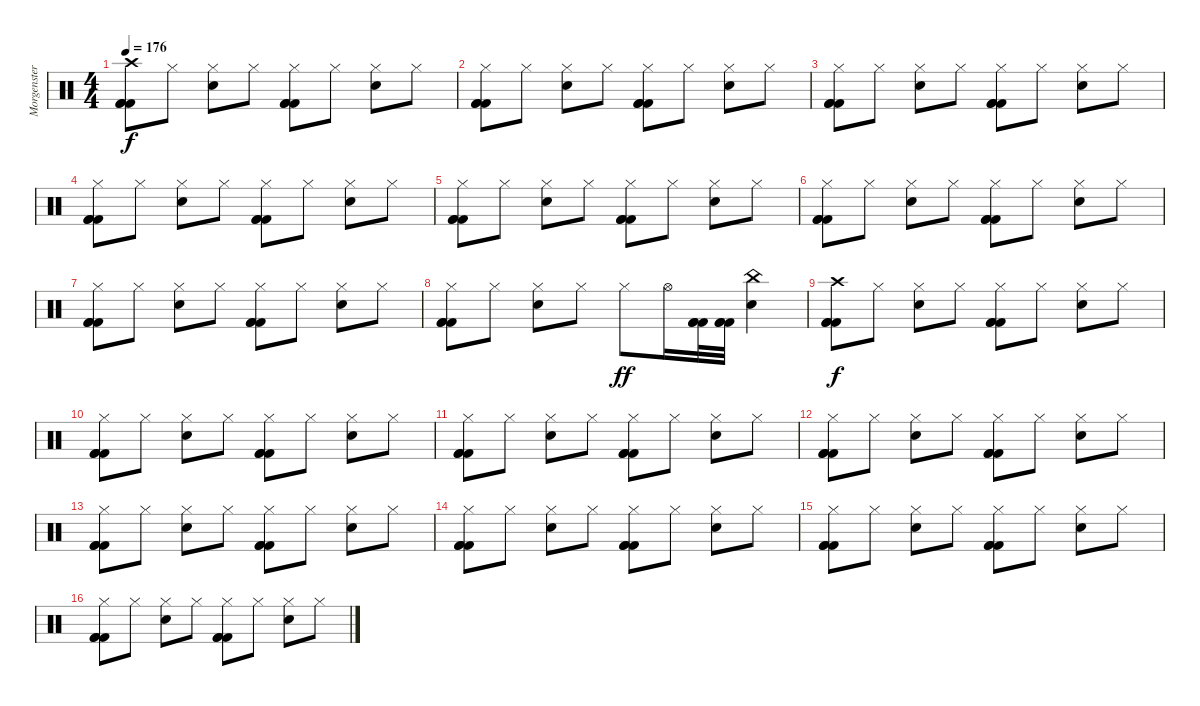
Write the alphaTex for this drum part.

\track ("Morgenstern (Schlagzeug)" "Morgenster") {instrument percussion}
\staff {score}
\articulation defaults
\ts (4 4)
\tempo 176
\clef neutral
\ks c
("Crash high (hit)" "Kick (hit) 2" "Kick (hit) 2" "Kick (hit) 2").8{dy f} "Hi-Hat (closed)".8 ("Hi-Hat (closed)" "Snare (hit) 2").8 "Hi-Hat (closed)".8 ("Hi-Hat (closed)" "Kick (hit) 2" "Kick (hit) 2" "Kick (hit) 2").8 "Hi-Hat (closed)".8 ("Hi-Hat (closed)" "Snare (hit) 2").8 "Hi-Hat (closed)".8 |
("Hi-Hat (closed)" "Kick (hit) 2" "Kick (hit) 2" "Kick (hit) 2").8 "Hi-Hat (closed)".8 ("Hi-Hat (closed)" "Snare (hit) 2").8 "Hi-Hat (closed)".8 ("Hi-Hat (closed)" "Kick (hit) 2" "Kick (hit) 2" "Kick (hit) 2").8 "Hi-Hat (closed)".8 ("Hi-Hat (closed)" "Snare (hit) 2").8 "Hi-Hat (closed)".8 |
("Hi-Hat (closed)" "Kick (hit) 2" "Kick (hit) 2" "Kick (hit) 2").8 "Hi-Hat (closed)".8 ("Hi-Hat (closed)" "Snare (hit) 2").8 "Hi-Hat (closed)".8 ("Hi-Hat (closed)" "Kick (hit) 2" "Kick (hit) 2" "Kick (hit) 2").8 "Hi-Hat (closed)".8 ("Hi-Hat (closed)" "Snare (hit) 2").8 "Hi-Hat (closed)".8 |
("Hi-Hat (closed)" "Kick (hit) 2" "Kick (hit) 2" "Kick (hit) 2").8 "Hi-Hat (closed)".8 ("Hi-Hat (closed)" "Snare (hit) 2").8 "Hi-Hat (closed)".8 ("Hi-Hat (closed)" "Kick (hit) 2" "Kick (hit) 2" "Kick (hit) 2").8 "Hi-Hat (closed)".8 ("Hi-Hat (closed)" "Snare (hit) 2").8 "Hi-Hat (closed)".8 |
("Hi-Hat (closed)" "Kick (hit) 2" "Kick (hit) 2" "Kick (hit) 2").8 "Hi-Hat (closed)".8 ("Hi-Hat (closed)" "Snare (hit) 2").8 "Hi-Hat (closed)".8 ("Hi-Hat (closed)" "Kick (hit) 2" "Kick (hit) 2" "Kick (hit) 2").8 "Hi-Hat (closed)".8 ("Hi-Hat (closed)" "Snare (hit) 2").8 "Hi-Hat (closed)".8 |
("Hi-Hat (closed)" "Kick (hit) 2" "Kick (hit) 2" "Kick (hit) 2").8 "Hi-Hat (closed)".8 ("Hi-Hat (closed)" "Snare (hit) 2").8 "Hi-Hat (closed)".8 ("Hi-Hat (closed)" "Kick (hit) 2" "Kick (hit) 2" "Kick (hit) 2").8 "Hi-Hat (closed)".8 ("Hi-Hat (closed)" "Snare (hit) 2").8 "Hi-Hat (closed)".8 |
("Hi-Hat (closed)" "Kick (hit) 2" "Kick (hit) 2" "Kick (hit) 2").8 "Hi-Hat (closed)".8 ("Hi-Hat (closed)" "Snare (hit) 2").8 "Hi-Hat (closed)".8 ("Hi-Hat (closed)" "Kick (hit) 2" "Kick (hit) 2" "Kick (hit) 2").8 "Hi-Hat (closed)".8 ("Hi-Hat (closed)" "Snare (hit) 2").8 "Hi-Hat (closed)".8 |
("Hi-Hat (closed)" "Kick (hit) 2" "Kick (hit) 2" "Kick (hit) 2").8 "Hi-Hat (closed)".8 ("Hi-Hat (closed)" "Snare (hit) 2").8 "Hi-Hat (closed)".8 "Hi-Hat (closed)".8{dy ff} "Hi-Hat (open)".16 ("Kick (hit) 2" "Kick (hit) 2" "Kick (hit) 2").32 ("Kick (hit) 2" "Kick (hit) 2" "Kick (hit) 2").32 ("China (hit)" "Snare (hit) 2").4 |
("Crash high (hit)" "Kick (hit) 2" "Kick (hit) 2" "Kick (hit) 2").8{dy f} "Hi-Hat (closed)".8 ("Hi-Hat (closed)" "Snare (hit) 2").8 "Hi-Hat (closed)".8 ("Hi-Hat (closed)" "Kick (hit) 2" "Kick (hit) 2" "Kick (hit) 2").8 "Hi-Hat (closed)".8 ("Hi-Hat (closed)" "Snare (hit) 2").8 "Hi-Hat (closed)".8 |
("Hi-Hat (closed)" "Kick (hit) 2" "Kick (hit) 2" "Kick (hit) 2").8 "Hi-Hat (closed)".8 ("Hi-Hat (closed)" "Snare (hit) 2").8 "Hi-Hat (closed)".8 ("Hi-Hat (closed)" "Kick (hit) 2" "Kick (hit) 2" "Kick (hit) 2").8 "Hi-Hat (closed)".8 ("Hi-Hat (closed)" "Snare (hit) 2").8 "Hi-Hat (closed)".8 |
("Hi-Hat (closed)" "Kick (hit) 2" "Kick (hit) 2" "Kick (hit) 2").8 "Hi-Hat (closed)".8 ("Hi-Hat (closed)" "Snare (hit) 2").8 "Hi-Hat (closed)".8 ("Hi-Hat (closed)" "Kick (hit) 2" "Kick (hit) 2" "Kick (hit) 2").8 "Hi-Hat (closed)".8 ("Hi-Hat (closed)" "Snare (hit) 2").8 "Hi-Hat (closed)".8 |
("Hi-Hat (closed)" "Kick (hit) 2" "Kick (hit) 2" "Kick (hit) 2").8 "Hi-Hat (closed)".8 ("Hi-Hat (closed)" "Snare (hit) 2").8 "Hi-Hat (closed)".8 ("Hi-Hat (closed)" "Kick (hit) 2" "Kick (hit) 2" "Kick (hit) 2").8 "Hi-Hat (closed)".8 ("Hi-Hat (closed)" "Snare (hit) 2").8 "Hi-Hat (closed)".8 |
("Hi-Hat (closed)" "Kick (hit) 2" "Kick (hit) 2" "Kick (hit) 2").8 "Hi-Hat (closed)".8 ("Hi-Hat (closed)" "Snare (hit) 2").8 "Hi-Hat (closed)".8 ("Hi-Hat (closed)" "Kick (hit) 2" "Kick (hit) 2" "Kick (hit) 2").8 "Hi-Hat (closed)".8 ("Hi-Hat (closed)" "Snare (hit) 2").8 "Hi-Hat (closed)".8 |
("Hi-Hat (closed)" "Kick (hit) 2" "Kick (hit) 2" "Kick (hit) 2").8 "Hi-Hat (closed)".8 ("Hi-Hat (closed)" "Snare (hit) 2").8 "Hi-Hat (closed)".8 ("Hi-Hat (closed)" "Kick (hit) 2" "Kick (hit) 2" "Kick (hit) 2").8 "Hi-Hat (closed)".8 ("Hi-Hat (closed)" "Snare (hit) 2").8 "Hi-Hat (closed)".8 |
("Hi-Hat (closed)" "Kick (hit) 2" "Kick (hit) 2" "Kick (hit) 2").8 "Hi-Hat (closed)".8 ("Hi-Hat (closed)" "Snare (hit) 2").8 "Hi-Hat (closed)".8 ("Hi-Hat (closed)" "Kick (hit) 2" "Kick (hit) 2" "Kick (hit) 2").8 "Hi-Hat (closed)".8 ("Hi-Hat (closed)" "Snare (hit) 2").8 "Hi-Hat (closed)".8 |
("Hi-Hat (closed)" "Kick (hit) 2" "Kick (hit) 2" "Kick (hit) 2").8 "Hi-Hat (closed)".8 ("Hi-Hat (closed)" "Snare (hit) 2").8 "Hi-Hat (closed)".8 ("Hi-Hat (closed)" "Kick (hit) 2" "Kick (hit) 2" "Kick (hit) 2").8 "Hi-Hat (closed)".8 ("Hi-Hat (closed)" "Snare (hit) 2").8 "Hi-Hat (closed)".8
